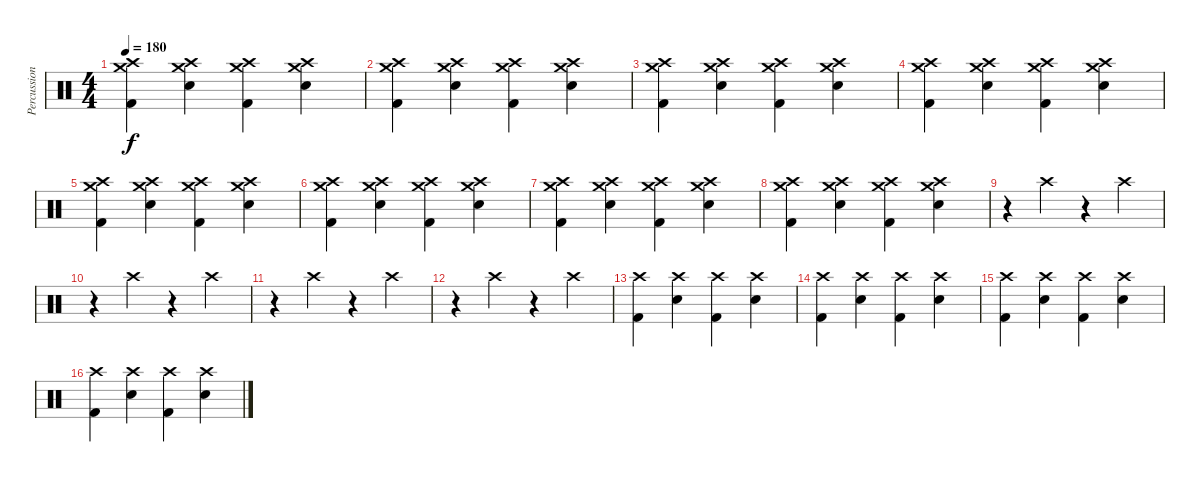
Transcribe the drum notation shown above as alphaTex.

\track ("Percussions" "Percussion") {instrument percussion}
\staff {score}
\articulation defaults
\ts (4 4)
\tempo 180
\clef neutral
\ks c
("Crash high (hit)" "Crash medium (hit)" "Kick (hit) 2").4{dy f} ("Crash high (hit)" "Crash medium (hit)" "Snare (hit) 2").4 ("Crash high (hit)" "Crash medium (hit)" "Kick (hit) 2").4 ("Crash high (hit)" "Crash medium (hit)" "Snare (hit) 2").4 |
("Crash high (hit)" "Crash medium (hit)" "Kick (hit) 2").4 ("Crash high (hit)" "Crash medium (hit)" "Snare (hit) 2").4 ("Crash high (hit)" "Crash medium (hit)" "Kick (hit) 2").4 ("Crash high (hit)" "Crash medium (hit)" "Snare (hit) 2").4 |
("Crash high (hit)" "Crash medium (hit)" "Kick (hit) 2").4 ("Crash high (hit)" "Crash medium (hit)" "Snare (hit) 2").4 ("Crash high (hit)" "Crash medium (hit)" "Kick (hit) 2").4 ("Crash high (hit)" "Crash medium (hit)" "Snare (hit) 2").4 |
("Crash high (hit)" "Crash medium (hit)" "Kick (hit) 2").4 ("Crash high (hit)" "Crash medium (hit)" "Snare (hit) 2").4 ("Crash high (hit)" "Crash medium (hit)" "Kick (hit) 2").4 ("Crash high (hit)" "Crash medium (hit)" "Snare (hit) 2").4 |
("Crash high (hit)" "Crash medium (hit)" "Kick (hit) 2").4 ("Crash high (hit)" "Crash medium (hit)" "Snare (hit) 2").4 ("Crash high (hit)" "Crash medium (hit)" "Kick (hit) 2").4 ("Crash high (hit)" "Crash medium (hit)" "Snare (hit) 2").4 |
("Crash high (hit)" "Crash medium (hit)" "Kick (hit) 2").4 ("Crash high (hit)" "Crash medium (hit)" "Snare (hit) 2").4 ("Crash high (hit)" "Crash medium (hit)" "Kick (hit) 2").4 ("Crash high (hit)" "Crash medium (hit)" "Snare (hit) 2").4 |
("Crash high (hit)" "Crash medium (hit)" "Kick (hit) 2").4 ("Crash high (hit)" "Crash medium (hit)" "Snare (hit) 2").4 ("Crash high (hit)" "Crash medium (hit)" "Kick (hit) 2").4 ("Crash high (hit)" "Crash medium (hit)" "Snare (hit) 2").4 |
("Crash high (hit)" "Crash medium (hit)" "Kick (hit) 2").4 ("Crash high (hit)" "Crash medium (hit)" "Snare (hit) 2").4 ("Crash high (hit)" "Crash medium (hit)" "Kick (hit) 2").4 ("Crash high (hit)" "Crash medium (hit)" "Snare (hit) 2").4 |
r.4 "Crash high (hit)".4 r.4 "Crash high (hit)".4 |
r.4 "Crash high (hit)".4 r.4 "Crash high (hit)".4 |
r.4 "Crash high (hit)".4 r.4 "Crash high (hit)".4 |
r.4 "Crash high (hit)".4 r.4 "Crash high (hit)".4 |
("Crash high (hit)" "Kick (hit) 2").4 ("Crash high (hit)" "Snare (hit) 2").4 ("Crash high (hit)" "Kick (hit) 2").4 ("Crash high (hit)" "Snare (hit) 2").4 |
("Crash high (hit)" "Kick (hit) 2").4 ("Crash high (hit)" "Snare (hit) 2").4 ("Crash high (hit)" "Kick (hit) 2").4 ("Crash high (hit)" "Snare (hit) 2").4 |
("Crash high (hit)" "Kick (hit) 2").4 ("Crash high (hit)" "Snare (hit) 2").4 ("Crash high (hit)" "Kick (hit) 2").4 ("Crash high (hit)" "Snare (hit) 2").4 |
("Crash high (hit)" "Kick (hit) 2").4 ("Crash high (hit)" "Snare (hit) 2").4 ("Crash high (hit)" "Kick (hit) 2").4 ("Crash high (hit)" "Snare (hit) 2").4
